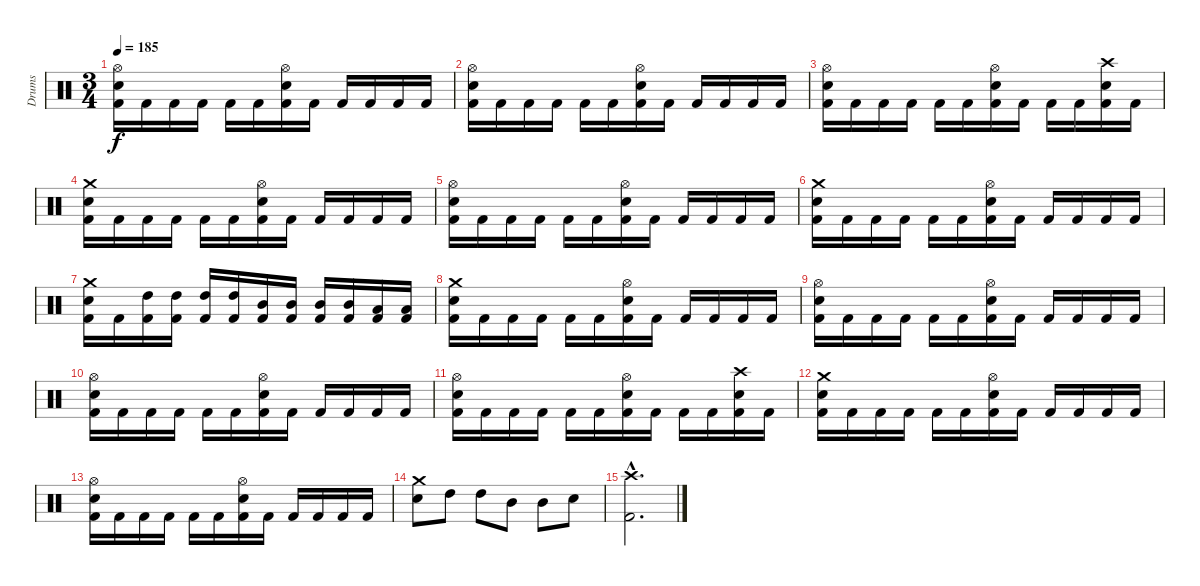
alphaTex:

\track ("Drums" "Drums") {instrument percussion}
\staff {score}
\articulation defaults
\ts (3 4)
\tempo 185
\clef neutral
\ks c
("Hi-Hat (open)" "Electric Snare (hit)" "Kick (hit) 2").16{dy f} "Kick (hit) 2".16 "Kick (hit) 2".16 "Kick (hit) 2".16 "Kick (hit) 2".16 "Kick (hit) 2".16 ("Hi-Hat (open)" "Electric Snare (hit)" "Kick (hit) 2").16 "Kick (hit) 2".16 "Kick (hit) 2".16 "Kick (hit) 2".16 "Kick (hit) 2".16 "Kick (hit) 2".16 |
("Hi-Hat (open)" "Electric Snare (hit)" "Kick (hit) 2").16 "Kick (hit) 2".16 "Kick (hit) 2".16 "Kick (hit) 2".16 "Kick (hit) 2".16 "Kick (hit) 2".16 ("Hi-Hat (open)" "Electric Snare (hit)" "Kick (hit) 2").16 "Kick (hit) 2".16 "Kick (hit) 2".16 "Kick (hit) 2".16 "Kick (hit) 2".16 "Kick (hit) 2".16 |
("Hi-Hat (open)" "Electric Snare (hit)" "Kick (hit) 2").16 "Kick (hit) 2".16 "Kick (hit) 2".16 "Kick (hit) 2".16 "Kick (hit) 2".16 "Kick (hit) 2".16 ("Hi-Hat (open)" "Electric Snare (hit)" "Kick (hit) 2").16 "Kick (hit) 2".16 "Kick (hit) 2".16 "Kick (hit) 2".16 ("Crash high (hit)" "Electric Snare (hit)" "Kick (hit) 2").16 "Kick (hit) 2".16 |
("Crash medium (hit)" "Electric Snare (hit)" "Kick (hit) 2").16 "Kick (hit) 2".16 "Kick (hit) 2".16 "Kick (hit) 2".16 "Kick (hit) 2".16 "Kick (hit) 2".16 ("Hi-Hat (open)" "Electric Snare (hit)" "Kick (hit) 2").16 "Kick (hit) 2".16 "Kick (hit) 2".16 "Kick (hit) 2".16 "Kick (hit) 2".16 "Kick (hit) 2".16 |
("Hi-Hat (open)" "Electric Snare (hit)" "Kick (hit) 2").16 "Kick (hit) 2".16 "Kick (hit) 2".16 "Kick (hit) 2".16 "Kick (hit) 2".16 "Kick (hit) 2".16 ("Hi-Hat (open)" "Electric Snare (hit)" "Kick (hit) 2").16 "Kick (hit) 2".16 "Kick (hit) 2".16 "Kick (hit) 2".16 "Kick (hit) 2".16 "Kick (hit) 2".16 |
("Crash medium (hit)" "Electric Snare (hit)" "Kick (hit) 2").16 "Kick (hit) 2".16 "Kick (hit) 2".16 "Kick (hit) 2".16 "Kick (hit) 2".16 "Kick (hit) 2".16 ("Hi-Hat (open)" "Electric Snare (hit)" "Kick (hit) 2").16 "Kick (hit) 2".16 "Kick (hit) 2".16 "Kick (hit) 2".16 "Kick (hit) 2".16 "Kick (hit) 2".16 |
("Crash medium (hit)" "Electric Snare (hit)" "Kick (hit) 2").16 "Kick (hit) 2".16 ("High Tom (hit)" "Kick (hit) 2").16 ("High Tom (hit)" "Kick (hit) 2").16 ("High Tom (hit)" "Kick (hit) 2").16 ("High Tom (hit)" "Kick (hit) 2").16 ("Mid Tom (hit)" "Kick (hit) 2").16 ("Mid Tom (hit)" "Kick (hit) 2").16 ("Mid Tom (hit)" "Kick (hit) 2").16 ("Mid Tom (hit)" "Kick (hit) 2").16 ("Low Tom (hit)" "Kick (hit) 2").16 ("Low Tom (hit)" "Kick (hit) 2").16 |
("Crash medium (hit)" "Electric Snare (hit)" "Kick (hit) 2").16 "Kick (hit) 2".16 "Kick (hit) 2".16 "Kick (hit) 2".16 "Kick (hit) 2".16 "Kick (hit) 2".16 ("Hi-Hat (open)" "Electric Snare (hit)" "Kick (hit) 2").16 "Kick (hit) 2".16 "Kick (hit) 2".16 "Kick (hit) 2".16 "Kick (hit) 2".16 "Kick (hit) 2".16 |
("Hi-Hat (open)" "Electric Snare (hit)" "Kick (hit) 2").16 "Kick (hit) 2".16 "Kick (hit) 2".16 "Kick (hit) 2".16 "Kick (hit) 2".16 "Kick (hit) 2".16 ("Hi-Hat (open)" "Electric Snare (hit)" "Kick (hit) 2").16 "Kick (hit) 2".16 "Kick (hit) 2".16 "Kick (hit) 2".16 "Kick (hit) 2".16 "Kick (hit) 2".16 |
("Hi-Hat (open)" "Electric Snare (hit)" "Kick (hit) 2").16 "Kick (hit) 2".16 "Kick (hit) 2".16 "Kick (hit) 2".16 "Kick (hit) 2".16 "Kick (hit) 2".16 ("Hi-Hat (open)" "Electric Snare (hit)" "Kick (hit) 2").16 "Kick (hit) 2".16 "Kick (hit) 2".16 "Kick (hit) 2".16 "Kick (hit) 2".16 "Kick (hit) 2".16 |
("Hi-Hat (open)" "Electric Snare (hit)" "Kick (hit) 2").16 "Kick (hit) 2".16 "Kick (hit) 2".16 "Kick (hit) 2".16 "Kick (hit) 2".16 "Kick (hit) 2".16 ("Hi-Hat (open)" "Electric Snare (hit)" "Kick (hit) 2").16 "Kick (hit) 2".16 "Kick (hit) 2".16 "Kick (hit) 2".16 ("Crash high (hit)" "Electric Snare (hit)" "Kick (hit) 2").16 "Kick (hit) 2".16 |
("Crash medium (hit)" "Electric Snare (hit)" "Kick (hit) 2").16 "Kick (hit) 2".16 "Kick (hit) 2".16 "Kick (hit) 2".16 "Kick (hit) 2".16 "Kick (hit) 2".16 ("Hi-Hat (open)" "Electric Snare (hit)" "Kick (hit) 2").16 "Kick (hit) 2".16 "Kick (hit) 2".16 "Kick (hit) 2".16 "Kick (hit) 2".16 "Kick (hit) 2".16 |
("Hi-Hat (open)" "Electric Snare (hit)" "Kick (hit) 2").16 "Kick (hit) 2".16 "Kick (hit) 2".16 "Kick (hit) 2".16 "Kick (hit) 2".16 "Kick (hit) 2".16 ("Hi-Hat (open)" "Electric Snare (hit)" "Kick (hit) 2").16 "Kick (hit) 2".16 "Kick (hit) 2".16 "Kick (hit) 2".16 "Kick (hit) 2".16 "Kick (hit) 2".16 |
("Crash medium (hit)" "Electric Snare (hit)").8 "High Tom (hit)".8 "High Tom (hit)".8 "Mid Tom (hit)".8 "Mid Tom (hit)".8 "Electric Snare (hit)".8 |
("Crash high (hit)"{hac} "Kick (hit) 2"{hac}).2{d}
